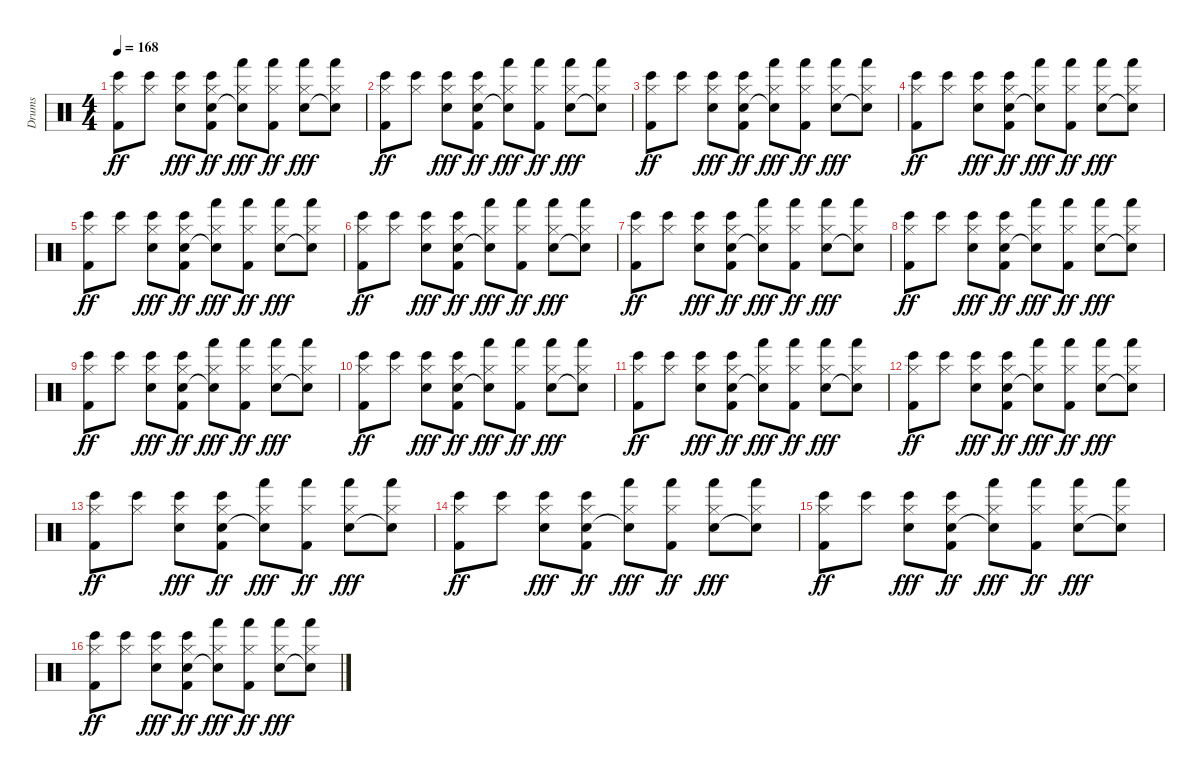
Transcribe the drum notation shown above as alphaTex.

\track ("Drums" "Drums") {instrument percussion}
\staff {score}
\articulation defaults
\ts (4 4)
\tempo 168
\clef neutral
\ks c
("Bongo High (hit)" "Hi-Hat (closed)" "Kick (hit) 2").8{dy ff} ("Bongo High (hit)" "Hi-Hat (closed)").8 ("Bongo High (hit)" "Hi-Hat (closed)" "Electric Snare (hit)").8{dy fff} ("Bongo High (hit)" "Hi-Hat (closed)" "Electric Snare (hit)" "Kick (hit) 2").8{dy ff} ("Hand (hit)" "Hi-Hat (closed)" "Electric Snare (hit)"{t}).8{dy fff} ("Hand (hit)" "Hi-Hat (closed)" "Kick (hit) 2").8{dy ff} ("Hand (hit)" "Hi-Hat (closed)" "Electric Snare (hit)").8{dy fff} ("Hand (hit)" "Hi-Hat (closed)" "Snare (hit)"{t}).8 |
("Bongo High (hit)" "Hi-Hat (closed)" "Kick (hit) 2").8{dy ff} ("Bongo High (hit)" "Hi-Hat (closed)").8 ("Bongo High (hit)" "Hi-Hat (closed)" "Electric Snare (hit)").8{dy fff} ("Bongo High (hit)" "Hi-Hat (closed)" "Electric Snare (hit)" "Kick (hit) 2").8{dy ff} ("Hand (hit)" "Hi-Hat (closed)" "Electric Snare (hit)"{t}).8{dy fff} ("Hand (hit)" "Hi-Hat (closed)" "Kick (hit) 2").8{dy ff} ("Hand (hit)" "Hi-Hat (closed)" "Electric Snare (hit)").8{dy fff} ("Hand (hit)" "Hi-Hat (closed)" "Snare (hit)"{t}).8 |
("Bongo High (hit)" "Hi-Hat (closed)" "Kick (hit) 2").8{dy ff} ("Bongo High (hit)" "Hi-Hat (closed)").8 ("Bongo High (hit)" "Hi-Hat (closed)" "Electric Snare (hit)").8{dy fff} ("Bongo High (hit)" "Hi-Hat (closed)" "Electric Snare (hit)" "Kick (hit) 2").8{dy ff} ("Hand (hit)" "Hi-Hat (closed)" "Electric Snare (hit)"{t}).8{dy fff} ("Hand (hit)" "Hi-Hat (closed)" "Kick (hit) 2").8{dy ff} ("Hand (hit)" "Hi-Hat (closed)" "Electric Snare (hit)").8{dy fff} ("Hand (hit)" "Hi-Hat (closed)" "Snare (hit)"{t}).8 |
("Bongo High (hit)" "Hi-Hat (closed)" "Kick (hit) 2").8{dy ff} ("Bongo High (hit)" "Hi-Hat (closed)").8 ("Bongo High (hit)" "Hi-Hat (closed)" "Electric Snare (hit)").8{dy fff} ("Bongo High (hit)" "Hi-Hat (closed)" "Electric Snare (hit)" "Kick (hit) 2").8{dy ff} ("Hand (hit)" "Hi-Hat (closed)" "Electric Snare (hit)"{t}).8{dy fff} ("Hand (hit)" "Hi-Hat (closed)" "Kick (hit) 2").8{dy ff} ("Hand (hit)" "Hi-Hat (closed)" "Electric Snare (hit)").8{dy fff} ("Hand (hit)" "Hi-Hat (closed)" "Snare (hit)"{t}).8 |
("Bongo High (hit)" "Hi-Hat (closed)" "Kick (hit) 2").8{dy ff} ("Bongo High (hit)" "Hi-Hat (closed)").8 ("Bongo High (hit)" "Hi-Hat (closed)" "Electric Snare (hit)").8{dy fff} ("Bongo High (hit)" "Hi-Hat (closed)" "Electric Snare (hit)" "Kick (hit) 2").8{dy ff} ("Hand (hit)" "Hi-Hat (closed)" "Electric Snare (hit)"{t}).8{dy fff} ("Hand (hit)" "Hi-Hat (closed)" "Kick (hit) 2").8{dy ff} ("Hand (hit)" "Hi-Hat (closed)" "Electric Snare (hit)").8{dy fff} ("Hand (hit)" "Hi-Hat (closed)" "Snare (hit)"{t}).8 |
("Bongo High (hit)" "Hi-Hat (closed)" "Kick (hit) 2").8{dy ff} ("Bongo High (hit)" "Hi-Hat (closed)").8 ("Bongo High (hit)" "Hi-Hat (closed)" "Electric Snare (hit)").8{dy fff} ("Bongo High (hit)" "Hi-Hat (closed)" "Electric Snare (hit)" "Kick (hit) 2").8{dy ff} ("Hand (hit)" "Hi-Hat (closed)" "Electric Snare (hit)"{t}).8{dy fff} ("Hand (hit)" "Hi-Hat (closed)" "Kick (hit) 2").8{dy ff} ("Hand (hit)" "Hi-Hat (closed)" "Electric Snare (hit)").8{dy fff} ("Hand (hit)" "Hi-Hat (closed)" "Snare (hit)"{t}).8 |
("Bongo High (hit)" "Hi-Hat (closed)" "Kick (hit) 2").8{dy ff} ("Bongo High (hit)" "Hi-Hat (closed)").8 ("Bongo High (hit)" "Hi-Hat (closed)" "Electric Snare (hit)").8{dy fff} ("Bongo High (hit)" "Hi-Hat (closed)" "Electric Snare (hit)" "Kick (hit) 2").8{dy ff} ("Hand (hit)" "Hi-Hat (closed)" "Electric Snare (hit)"{t}).8{dy fff} ("Hand (hit)" "Hi-Hat (closed)" "Kick (hit) 2").8{dy ff} ("Hand (hit)" "Hi-Hat (closed)" "Electric Snare (hit)").8{dy fff} ("Hand (hit)" "Hi-Hat (closed)" "Snare (hit)"{t}).8 |
("Bongo High (hit)" "Hi-Hat (closed)" "Kick (hit) 2").8{dy ff} ("Bongo High (hit)" "Hi-Hat (closed)").8 ("Bongo High (hit)" "Hi-Hat (closed)" "Electric Snare (hit)").8{dy fff} ("Bongo High (hit)" "Hi-Hat (closed)" "Electric Snare (hit)" "Kick (hit) 2").8{dy ff} ("Hand (hit)" "Hi-Hat (closed)" "Electric Snare (hit)"{t}).8{dy fff} ("Hand (hit)" "Hi-Hat (closed)" "Kick (hit) 2").8{dy ff} ("Hand (hit)" "Hi-Hat (closed)" "Electric Snare (hit)").8{dy fff} ("Hand (hit)" "Hi-Hat (closed)" "Snare (hit)"{t}).8 |
("Bongo High (hit)" "Hi-Hat (closed)" "Kick (hit) 2").8{dy ff} ("Bongo High (hit)" "Hi-Hat (closed)").8 ("Bongo High (hit)" "Hi-Hat (closed)" "Electric Snare (hit)").8{dy fff} ("Bongo High (hit)" "Hi-Hat (closed)" "Electric Snare (hit)" "Kick (hit) 2").8{dy ff} ("Hand (hit)" "Hi-Hat (closed)" "Electric Snare (hit)"{t}).8{dy fff} ("Hand (hit)" "Hi-Hat (closed)" "Kick (hit) 2").8{dy ff} ("Hand (hit)" "Hi-Hat (closed)" "Electric Snare (hit)").8{dy fff} ("Hand (hit)" "Hi-Hat (closed)" "Snare (hit)"{t}).8 |
("Bongo High (hit)" "Hi-Hat (closed)" "Kick (hit) 2").8{dy ff} ("Bongo High (hit)" "Hi-Hat (closed)").8 ("Bongo High (hit)" "Hi-Hat (closed)" "Electric Snare (hit)").8{dy fff} ("Bongo High (hit)" "Hi-Hat (closed)" "Electric Snare (hit)" "Kick (hit) 2").8{dy ff} ("Hand (hit)" "Hi-Hat (closed)" "Electric Snare (hit)"{t}).8{dy fff} ("Hand (hit)" "Hi-Hat (closed)" "Kick (hit) 2").8{dy ff} ("Hand (hit)" "Hi-Hat (closed)" "Electric Snare (hit)").8{dy fff} ("Hand (hit)" "Hi-Hat (closed)" "Snare (hit)"{t}).8 |
("Bongo High (hit)" "Hi-Hat (closed)" "Kick (hit) 2").8{dy ff} ("Bongo High (hit)" "Hi-Hat (closed)").8 ("Bongo High (hit)" "Hi-Hat (closed)" "Electric Snare (hit)").8{dy fff} ("Bongo High (hit)" "Hi-Hat (closed)" "Electric Snare (hit)" "Kick (hit) 2").8{dy ff} ("Hand (hit)" "Hi-Hat (closed)" "Electric Snare (hit)"{t}).8{dy fff} ("Hand (hit)" "Hi-Hat (closed)" "Kick (hit) 2").8{dy ff} ("Hand (hit)" "Hi-Hat (closed)" "Electric Snare (hit)").8{dy fff} ("Hand (hit)" "Hi-Hat (closed)" "Snare (hit)"{t}).8 |
("Bongo High (hit)" "Hi-Hat (closed)" "Kick (hit) 2").8{dy ff} ("Bongo High (hit)" "Hi-Hat (closed)").8 ("Bongo High (hit)" "Hi-Hat (closed)" "Electric Snare (hit)").8{dy fff} ("Bongo High (hit)" "Hi-Hat (closed)" "Electric Snare (hit)" "Kick (hit) 2").8{dy ff} ("Hand (hit)" "Hi-Hat (closed)" "Electric Snare (hit)"{t}).8{dy fff} ("Hand (hit)" "Hi-Hat (closed)" "Kick (hit) 2").8{dy ff} ("Hand (hit)" "Hi-Hat (closed)" "Electric Snare (hit)").8{dy fff} ("Hand (hit)" "Hi-Hat (closed)" "Snare (hit)"{t}).8 |
("Bongo High (hit)" "Hi-Hat (closed)" "Kick (hit) 2").8{dy ff} ("Bongo High (hit)" "Hi-Hat (closed)").8 ("Bongo High (hit)" "Hi-Hat (closed)" "Electric Snare (hit)").8{dy fff} ("Bongo High (hit)" "Hi-Hat (closed)" "Electric Snare (hit)" "Kick (hit) 2").8{dy ff} ("Hand (hit)" "Hi-Hat (closed)" "Electric Snare (hit)"{t}).8{dy fff} ("Hand (hit)" "Hi-Hat (closed)" "Kick (hit) 2").8{dy ff} ("Hand (hit)" "Hi-Hat (closed)" "Electric Snare (hit)").8{dy fff} ("Hand (hit)" "Hi-Hat (closed)" "Snare (hit)"{t}).8 |
("Bongo High (hit)" "Hi-Hat (closed)" "Kick (hit) 2").8{dy ff} ("Bongo High (hit)" "Hi-Hat (closed)").8 ("Bongo High (hit)" "Hi-Hat (closed)" "Electric Snare (hit)").8{dy fff} ("Bongo High (hit)" "Hi-Hat (closed)" "Electric Snare (hit)" "Kick (hit) 2").8{dy ff} ("Hand (hit)" "Hi-Hat (closed)" "Electric Snare (hit)"{t}).8{dy fff} ("Hand (hit)" "Hi-Hat (closed)" "Kick (hit) 2").8{dy ff} ("Hand (hit)" "Hi-Hat (closed)" "Electric Snare (hit)").8{dy fff} ("Hand (hit)" "Hi-Hat (closed)" "Snare (hit)"{t}).8 |
("Bongo High (hit)" "Hi-Hat (closed)" "Kick (hit) 2").8{dy ff} ("Bongo High (hit)" "Hi-Hat (closed)").8 ("Bongo High (hit)" "Hi-Hat (closed)" "Electric Snare (hit)").8{dy fff} ("Bongo High (hit)" "Hi-Hat (closed)" "Electric Snare (hit)" "Kick (hit) 2").8{dy ff} ("Hand (hit)" "Hi-Hat (closed)" "Electric Snare (hit)"{t}).8{dy fff} ("Hand (hit)" "Hi-Hat (closed)" "Kick (hit) 2").8{dy ff} ("Hand (hit)" "Hi-Hat (closed)" "Electric Snare (hit)").8{dy fff} ("Hand (hit)" "Hi-Hat (closed)" "Snare (hit)"{t}).8 |
("Bongo High (hit)" "Hi-Hat (closed)" "Kick (hit) 2").8{dy ff} ("Bongo High (hit)" "Hi-Hat (closed)").8 ("Bongo High (hit)" "Hi-Hat (closed)" "Electric Snare (hit)").8{dy fff} ("Bongo High (hit)" "Hi-Hat (closed)" "Electric Snare (hit)" "Kick (hit) 2").8{dy ff} ("Hand (hit)" "Hi-Hat (closed)" "Electric Snare (hit)"{t}).8{dy fff} ("Hand (hit)" "Hi-Hat (closed)" "Kick (hit) 2").8{dy ff} ("Hand (hit)" "Hi-Hat (closed)" "Electric Snare (hit)").8{dy fff} ("Hand (hit)" "Hi-Hat (closed)" "Snare (hit)"{t}).8
